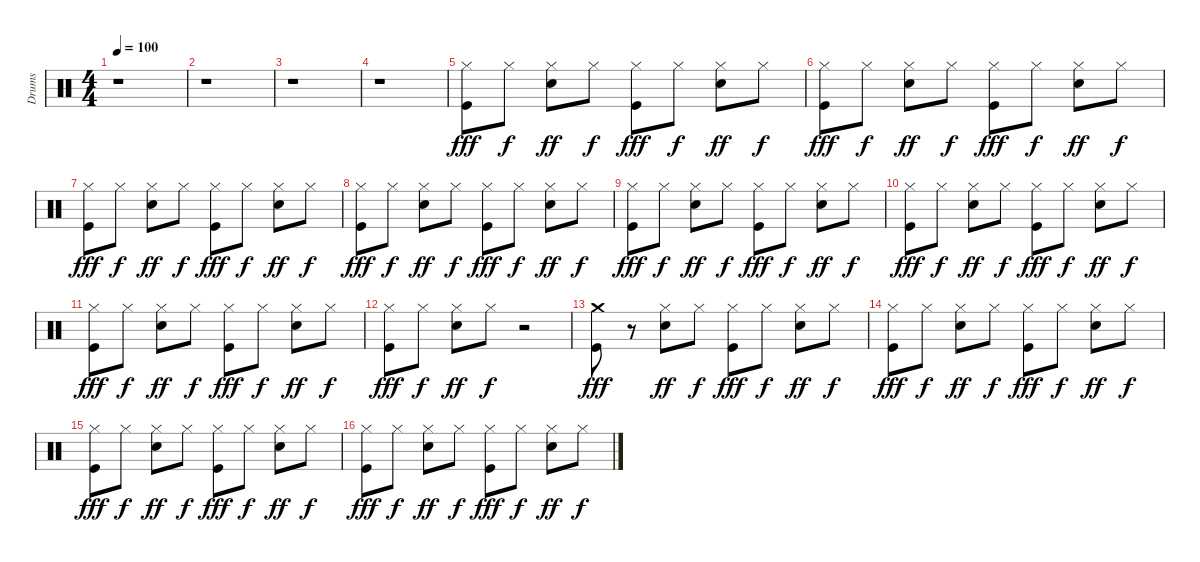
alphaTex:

\track ("Drums" "Drums") {instrument percussion}
\staff {score}
\articulation defaults
\ts (4 4)
\tempo 100
\clef neutral
\ks c
r.1{dy fff} |
r.1 |
r.1 |
r.1 |
("Kick (hit)" "Hi-Hat (closed)").8 "Hi-Hat (closed)".8{dy f} ("Snare (hit) 2" "Hi-Hat (closed)").8{dy ff} "Hi-Hat (closed)".8{dy f} ("Kick (hit)" "Hi-Hat (closed)").8{dy fff} "Hi-Hat (closed)".8{dy f} ("Snare (hit) 2" "Hi-Hat (closed)").8{dy ff} "Hi-Hat (closed)".8{dy f} |
("Kick (hit)" "Hi-Hat (closed)").8{dy fff} "Hi-Hat (closed)".8{dy f} ("Snare (hit) 2" "Hi-Hat (closed)").8{dy ff} "Hi-Hat (closed)".8{dy f} ("Kick (hit)" "Hi-Hat (closed)").8{dy fff} "Hi-Hat (closed)".8{dy f} ("Snare (hit) 2" "Hi-Hat (closed)").8{dy ff} "Hi-Hat (closed)".8{dy f} |
("Kick (hit)" "Hi-Hat (closed)").8{dy fff} "Hi-Hat (closed)".8{dy f} ("Snare (hit) 2" "Hi-Hat (closed)").8{dy ff} "Hi-Hat (closed)".8{dy f} ("Kick (hit)" "Hi-Hat (closed)").8{dy fff} "Hi-Hat (closed)".8{dy f} ("Snare (hit) 2" "Hi-Hat (closed)").8{dy ff} "Hi-Hat (closed)".8{dy f} |
("Kick (hit)" "Hi-Hat (closed)").8{dy fff} "Hi-Hat (closed)".8{dy f} ("Snare (hit) 2" "Hi-Hat (closed)").8{dy ff} "Hi-Hat (closed)".8{dy f} ("Kick (hit)" "Hi-Hat (closed)").8{dy fff} "Hi-Hat (closed)".8{dy f} ("Snare (hit) 2" "Hi-Hat (closed)").8{dy ff} "Hi-Hat (closed)".8{dy f} |
("Kick (hit)" "Hi-Hat (closed)").8{dy fff} "Hi-Hat (closed)".8{dy f} ("Snare (hit) 2" "Hi-Hat (closed)").8{dy ff} "Hi-Hat (closed)".8{dy f} ("Kick (hit)" "Hi-Hat (closed)").8{dy fff} "Hi-Hat (closed)".8{dy f} ("Snare (hit) 2" "Hi-Hat (closed)").8{dy ff} "Hi-Hat (closed)".8{dy f} |
("Kick (hit)" "Hi-Hat (closed)").8{dy fff} "Hi-Hat (closed)".8{dy f} ("Snare (hit) 2" "Hi-Hat (closed)").8{dy ff} "Hi-Hat (closed)".8{dy f} ("Kick (hit)" "Hi-Hat (closed)").8{dy fff} "Hi-Hat (closed)".8{dy f} ("Snare (hit) 2" "Hi-Hat (closed)").8{dy ff} "Hi-Hat (closed)".8{dy f} |
("Kick (hit)" "Hi-Hat (closed)").8{dy fff} "Hi-Hat (closed)".8{dy f} ("Snare (hit) 2" "Hi-Hat (closed)").8{dy ff} "Hi-Hat (closed)".8{dy f} ("Kick (hit)" "Hi-Hat (closed)").8{dy fff} "Hi-Hat (closed)".8{dy f} ("Snare (hit) 2" "Hi-Hat (closed)").8{dy ff} "Hi-Hat (closed)".8{dy f} |
("Kick (hit)" "Hi-Hat (closed)").8{dy fff} "Hi-Hat (closed)".8{dy f} ("Snare (hit) 2" "Hi-Hat (closed)").8{dy ff} "Hi-Hat (closed)".8{dy f} r.2 |
("Kick (hit)" "Crash medium (hit)").8{dy fff} r.8 ("Snare (hit) 2" "Hi-Hat (closed)").8{dy ff} "Hi-Hat (closed)".8{dy f} ("Kick (hit)" "Hi-Hat (closed)").8{dy fff} "Hi-Hat (closed)".8{dy f} ("Snare (hit) 2" "Hi-Hat (closed)").8{dy ff} "Hi-Hat (closed)".8{dy f} |
("Kick (hit)" "Hi-Hat (closed)").8{dy fff} "Hi-Hat (closed)".8{dy f} ("Snare (hit) 2" "Hi-Hat (closed)").8{dy ff} "Hi-Hat (closed)".8{dy f} ("Kick (hit)" "Hi-Hat (closed)").8{dy fff} "Hi-Hat (closed)".8{dy f} ("Snare (hit) 2" "Hi-Hat (closed)").8{dy ff} "Hi-Hat (closed)".8{dy f} |
("Kick (hit)" "Hi-Hat (closed)").8{dy fff} "Hi-Hat (closed)".8{dy f} ("Snare (hit) 2" "Hi-Hat (closed)").8{dy ff} "Hi-Hat (closed)".8{dy f} ("Kick (hit)" "Hi-Hat (closed)").8{dy fff} "Hi-Hat (closed)".8{dy f} ("Snare (hit) 2" "Hi-Hat (closed)").8{dy ff} "Hi-Hat (closed)".8{dy f} |
("Kick (hit)" "Hi-Hat (closed)").8{dy fff} "Hi-Hat (closed)".8{dy f} ("Snare (hit) 2" "Hi-Hat (closed)").8{dy ff} "Hi-Hat (closed)".8{dy f} ("Kick (hit)" "Hi-Hat (closed)").8{dy fff} "Hi-Hat (closed)".8{dy f} ("Snare (hit) 2" "Hi-Hat (closed)").8{dy ff} "Hi-Hat (closed)".8{dy f}
